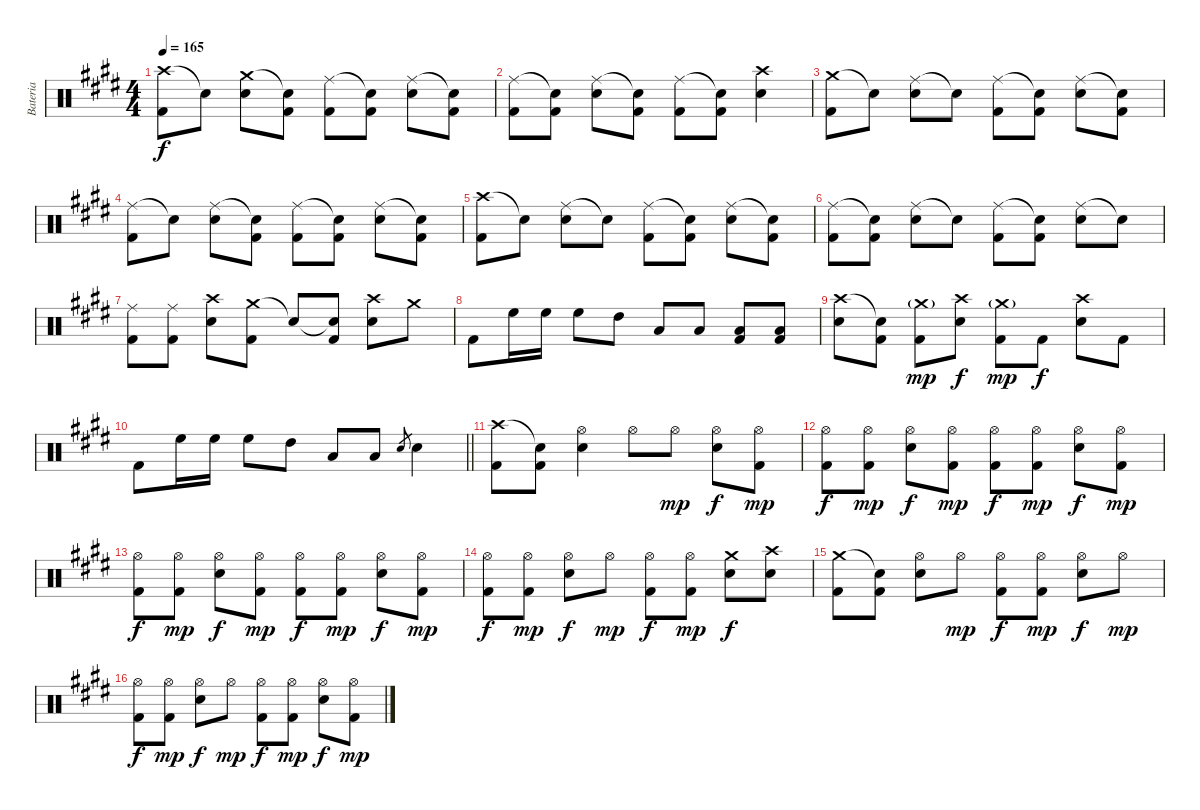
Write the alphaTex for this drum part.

\track ("Bateria" "Bateria") {instrument percussion}
\staff {score}
\articulation defaults
\ts (4 4)
\tempo 165
\clef neutral
\ks e
("Crash high (hit)" "Kick (hit) 2").8{dy f} "Snare (hit)"{t}.8 ("Crash medium (hit)" "Electric Snare (hit)").8 ("Snare (hit)"{t} "Kick (hit) 2").8 ("Ride (middle)" "Kick (hit) 2").8 ("Snare (hit)"{t} "Kick (hit) 2").8 ("Ride (middle)" "Electric Snare (hit)").8 ("Snare (hit)"{t} "Kick (hit) 2").8 |
("Ride (middle)" "Kick (hit) 2").8 ("Snare (hit)"{t} "Kick (hit) 2").8 ("Ride (middle)" "Electric Snare (hit)").8 ("Snare (hit)"{t} "Kick (hit) 2").8 ("Ride (middle)" "Kick (hit) 2").8 ("Snare (hit)"{t} "Kick (hit) 2").8 ("Crash high (hit)" "Electric Snare (hit)").4 |
("Crash medium (hit)" "Kick (hit) 2").8 "Snare (hit)"{t}.8 ("Ride (middle)" "Electric Snare (hit)").8 "Snare (hit)"{t}.8 ("Ride (middle)" "Kick (hit) 2").8 ("Snare (hit)"{t} "Kick (hit) 2").8 ("Ride (middle)" "Electric Snare (hit)").8 ("Snare (hit)"{t} "Kick (hit) 2").8 |
("Ride (middle)" "Kick (hit) 2").8 "Snare (hit)"{t}.8 ("Ride (middle)" "Electric Snare (hit)").8 ("Snare (hit)"{t} "Kick (hit) 2").8 ("Ride (middle)" "Kick (hit) 2").8 ("Snare (hit)"{t} "Kick (hit) 2").8 ("Ride (middle)" "Electric Snare (hit)").8 ("Snare (hit)"{t} "Kick (hit) 2").8 |
("Crash high (hit)" "Kick (hit) 2").8 "Snare (hit)"{t}.8 ("Ride (middle)" "Electric Snare (hit)").8 "Snare (hit)"{t}.8 ("Ride (middle)" "Kick (hit) 2").8 ("Snare (hit)"{t} "Kick (hit) 2").8 ("Ride (middle)" "Electric Snare (hit)").8 ("Snare (hit)"{t} "Kick (hit) 2").8 |
("Ride (middle)" "Kick (hit) 2").8 ("Snare (hit)"{t} "Kick (hit) 2").8 ("Ride (middle)" "Electric Snare (hit)").8 "Snare (hit)"{t}.8 ("Ride (middle)" "Kick (hit) 2").8 ("Snare (hit)"{t} "Kick (hit) 2").8 ("Ride (middle)" "Electric Snare (hit)").8 "Snare (hit)"{t}.8 |
("Ride (middle)" "Kick (hit) 2").8 ("Ride (middle)" "Kick (hit) 2").8 ("Crash high (hit)" "Electric Snare (hit)").8 ("Crash medium (hit)" "Kick (hit) 2").8 "Snare (hit)"{t}.8 ("Snare (hit)"{t} "Kick (hit) 2").8 ("Crash high (hit)" "Electric Snare (hit)").8 "Crash medium (hit)".8 |
"Kick (hit) 2".8 "High Floor Tom (hit)".16 "High Floor Tom (hit)".16 "High Floor Tom (hit)".8 "High Tom (hit)".8 "Low Tom (hit)".8 "Low Tom (hit)".8 ("Low Floor Tom (hit)" "Kick (hit) 2").8 ("Low Floor Tom (hit)" "Kick (hit) 2").8 |
("Crash high (hit)" "Electric Snare (hit)").8 ("Snare (hit)"{t} "Kick (hit) 2").8 ("Crash medium (hit)"{g} "Kick (hit) 2").8{dy mp} ("Crash high (hit)" "Electric Snare (hit)").8{dy f} ("Crash medium (hit)"{g} "Kick (hit) 2").8{dy mp} "Kick (hit) 2".8{dy f} ("Crash high (hit)" "Electric Snare (hit)").8 "Kick (hit) 2".8 |
\barLineRight lightlight "Kick (hit) 2".8 "High Floor Tom (hit)".16 "High Floor Tom (hit)".16 "High Floor Tom (hit)".8 "High Tom (hit)".8 "Low Tom (hit)".8 "Low Tom (hit)".8 "Electric Snare (hit)".8{gr} "Electric Snare (hit)".4
|
("Crash high (hit)" "Kick (hit) 2").8 ("Snare (hit)"{t} "Kick (hit) 2").8 ("Hi-Hat (open)" "Electric Snare (hit)").4 "Hi-Hat (open)".8 "Hi-Hat (open)".8{dy mp} ("Hi-Hat (open)" "Electric Snare (hit)").8{dy f} ("Hi-Hat (open)" "Kick (hit) 2").8{dy mp} |
("Hi-Hat (open)" "Kick (hit) 2").8{dy f} ("Hi-Hat (open)" "Kick (hit) 2").8{dy mp} ("Hi-Hat (open)" "Electric Snare (hit)").8{dy f} ("Hi-Hat (open)" "Kick (hit) 2").8{dy mp} ("Hi-Hat (open)" "Kick (hit) 2").8{dy f} ("Hi-Hat (open)" "Kick (hit) 2").8{dy mp} ("Hi-Hat (open)" "Electric Snare (hit)").8{dy f} ("Hi-Hat (open)" "Kick (hit) 2").8{dy mp} |
("Hi-Hat (open)" "Kick (hit) 2").8{dy f} ("Hi-Hat (open)" "Kick (hit) 2").8{dy mp} ("Hi-Hat (open)" "Electric Snare (hit)").8{dy f} ("Hi-Hat (open)" "Kick (hit) 2").8{dy mp} ("Hi-Hat (open)" "Kick (hit) 2").8{dy f} ("Hi-Hat (open)" "Kick (hit) 2").8{dy mp} ("Hi-Hat (open)" "Electric Snare (hit)").8{dy f} ("Hi-Hat (open)" "Kick (hit) 2").8{dy mp} |
("Hi-Hat (open)" "Kick (hit) 2").8{dy f} ("Hi-Hat (open)" "Kick (hit) 2").8{dy mp} ("Hi-Hat (open)" "Electric Snare (hit)").8{dy f} "Hi-Hat (open)".8{dy mp} ("Hi-Hat (open)" "Kick (hit) 2").8{dy f} ("Hi-Hat (open)" "Kick (hit) 2").8{dy mp} ("Crash medium (hit)" "Electric Snare (hit)").8{dy f} ("Crash high (hit)" "Electric Snare (hit)").8 |
("Crash medium (hit)" "Kick (hit) 2").8 ("Snare (hit)"{t} "Kick (hit) 2").8 ("Hi-Hat (open)" "Electric Snare (hit)").8 "Hi-Hat (open)".8{dy mp} ("Hi-Hat (open)" "Kick (hit) 2").8{dy f} ("Hi-Hat (open)" "Kick (hit) 2").8{dy mp} ("Hi-Hat (open)" "Electric Snare (hit)").8{dy f} "Hi-Hat (open)".8{dy mp} |
("Hi-Hat (open)" "Kick (hit) 2").8{dy f} ("Hi-Hat (open)" "Kick (hit) 2").8{dy mp} ("Hi-Hat (open)" "Electric Snare (hit)").8{dy f} "Hi-Hat (open)".8{dy mp} ("Hi-Hat (open)" "Kick (hit) 2").8{dy f} ("Hi-Hat (open)" "Kick (hit) 2").8{dy mp} ("Hi-Hat (open)" "Electric Snare (hit)").8{dy f} ("Hi-Hat (open)" "Kick (hit) 2").8{dy mp}
